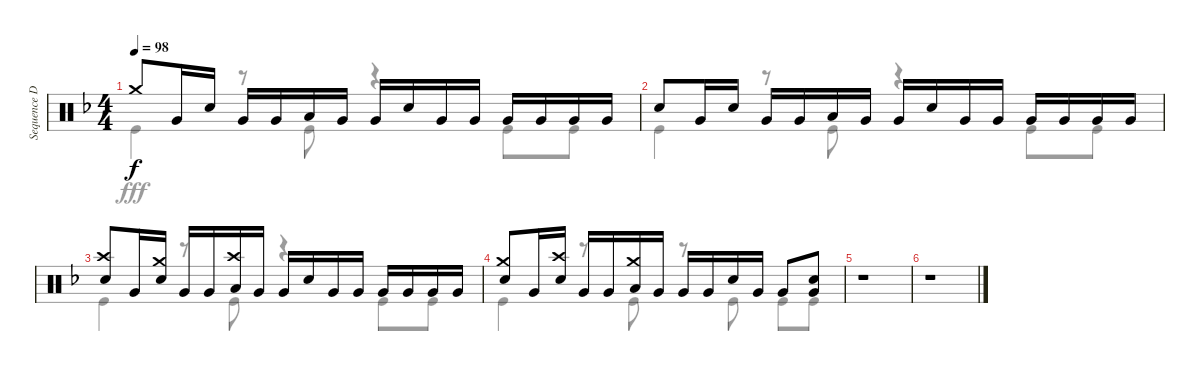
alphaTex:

\track ("Sequence Drums I" "Sequence D") {instrument percussion}
\staff {score}
\articulation defaults
\voice
\ts (4 4)
\tempo 98
\clef neutral
\ks f "Crash medium (hit)".8{dy f} "Very Low Tom (hit)".16 "Snare (hit) 2".16 "Very Low Tom (hit)".16 "Very Low Tom (hit)".16 "Low Tom (hit)".16 "Very Low Tom (hit)".16 "Very Low Tom (hit)".16 "Snare (hit) 2".16 "Very Low Tom (hit)".16 "Very Low Tom (hit)".16 "Very Low Tom (hit)".16 "Very Low Tom (hit)".16 "Very Low Tom (hit)".16 "Very Low Tom (hit)".16
|
"Snare (hit) 2".8 "Very Low Tom (hit)".16 "Snare (hit) 2".16 "Very Low Tom (hit)".16 "Very Low Tom (hit)".16 "Low Tom (hit)".16 "Very Low Tom (hit)".16 "Very Low Tom (hit)".16 "Snare (hit) 2".16 "Very Low Tom (hit)".16 "Very Low Tom (hit)".16 "Very Low Tom (hit)".16 "Very Low Tom (hit)".16 "Very Low Tom (hit)".16 "Very Low Tom (hit)".16 |
("Crash high (hit)" "Snare (hit) 2").8 "Very Low Tom (hit)".16 ("Crash medium (hit)" "Snare (hit) 2").16 "Very Low Tom (hit)".16 "Very Low Tom (hit)".16 ("Crash high (hit)" "Low Tom (hit)").16 "Very Low Tom (hit)".16 "Very Low Tom (hit)".16 "Snare (hit) 2".16 "Very Low Tom (hit)".16 "Very Low Tom (hit)".16 "Very Low Tom (hit)".16 "Very Low Tom (hit)".16 "Very Low Tom (hit)".16 "Very Low Tom (hit)".16 |
("Crash medium (hit)" "Snare (hit) 2").8 "Very Low Tom (hit)".16 ("Crash high (hit)" "Snare (hit) 2").16 "Very Low Tom (hit)".16 "Very Low Tom (hit)".16 ("Crash medium (hit)" "Low Tom (hit)").16 "Very Low Tom (hit)".16 "Very Low Tom (hit)".16 "Very Low Tom (hit)".16 "Snare (hit) 2".16 "Very Low Tom (hit)".16 "Very Low Tom (hit)".8 ("Snare (hit) 2" "Very Low Tom (hit)").8 |
r.1 |
r.1
\voice
\clef neutral
\ottava regular
\simile none
\ks f "Kick (hit)".4{dy fff}
r.8 "Kick (hit)".8 r.4 "Kick (hit)".8 "Kick (hit)".8 |
"Kick (hit)".4 r.8 "Kick (hit)".8 r.4 "Kick (hit)".8 "Kick (hit)".8 |
"Kick (hit)".4 r.8 "Kick (hit)".8 r.4 "Kick (hit)".8 "Kick (hit)".8 |
"Kick (hit)".4 r.8 "Kick (hit)".8 r.8 "Kick (hit)".8 "Kick (hit)".8 "Kick (hit)".8 |
r.1 |
r.1
